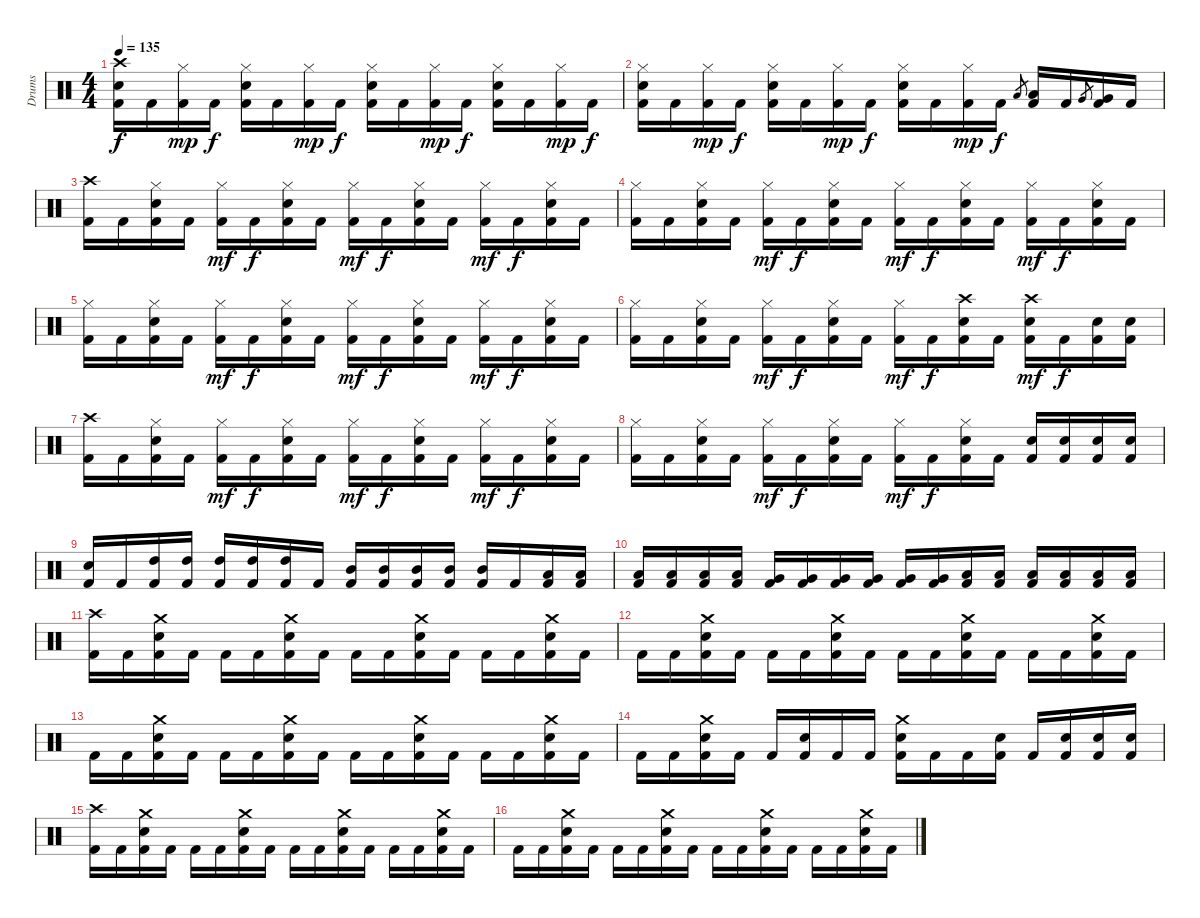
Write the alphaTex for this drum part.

\track ("Drums" "Drums") {instrument percussion}
\staff {score}
\articulation defaults
\ts (4 4)
\tempo 135
\clef neutral
\ks c
("Crash high (hit)" "Snare (hit) 2" "Kick (hit) 2").16{dy f} "Kick (hit) 2".16 ("Hi-Hat (closed)" "Kick (hit) 2").16{dy mp} "Kick (hit) 2".16{dy f} ("Hi-Hat (closed)" "Snare (hit) 2" "Kick (hit) 2").16 "Kick (hit) 2".16 ("Hi-Hat (closed)" "Kick (hit) 2").16{dy mp} "Kick (hit) 2".16{dy f} ("Hi-Hat (closed)" "Snare (hit) 2" "Kick (hit) 2").16 "Kick (hit) 2".16 ("Hi-Hat (closed)" "Kick (hit) 2").16{dy mp} "Kick (hit) 2".16{dy f} ("Hi-Hat (closed)" "Snare (hit) 2" "Kick (hit) 2").16 "Kick (hit) 2".16 ("Hi-Hat (closed)" "Kick (hit) 2").16{dy mp} "Kick (hit) 2".16{dy f} |
("Hi-Hat (closed)" "Snare (hit) 2" "Kick (hit) 2").16 "Kick (hit) 2".16 ("Hi-Hat (closed)" "Kick (hit) 2").16{dy mp} "Kick (hit) 2".16{dy f} ("Hi-Hat (closed)" "Snare (hit) 2" "Kick (hit) 2").16 "Kick (hit) 2".16 ("Hi-Hat (closed)" "Kick (hit) 2").16{dy mp} "Kick (hit) 2".16{dy f} ("Hi-Hat (closed)" "Snare (hit) 2" "Kick (hit) 2").16 "Kick (hit) 2".16 ("Hi-Hat (closed)" "Kick (hit) 2").16{dy mp} "Kick (hit) 2".16{dy f} "Low Tom (hit)".8{gr} ("Low Tom (hit)" "Kick (hit) 2").16 "Kick (hit) 2".16 "Very Low Tom (hit)".8{gr} ("Very Low Tom (hit)" "Kick (hit) 2").16 "Kick (hit) 2".16 |
("Crash high (hit)" "Kick (hit) 2").16 "Kick (hit) 2".16 ("Hi-Hat (closed)" "Snare (hit) 2" "Kick (hit) 2").16 "Kick (hit) 2".16 ("Hi-Hat (closed)" "Kick (hit) 2").16{dy mf} "Kick (hit) 2".16{dy f} ("Hi-Hat (closed)" "Snare (hit) 2" "Kick (hit) 2").16 "Kick (hit) 2".16 ("Hi-Hat (closed)" "Kick (hit) 2").16{dy mf} "Kick (hit) 2".16{dy f} ("Hi-Hat (closed)" "Snare (hit) 2" "Kick (hit) 2").16 "Kick (hit) 2".16 ("Hi-Hat (closed)" "Kick (hit) 2").16{dy mf} "Kick (hit) 2".16{dy f} ("Hi-Hat (closed)" "Snare (hit) 2" "Kick (hit) 2").16 "Kick (hit) 2".16 |
("Hi-Hat (closed)" "Kick (hit) 2").16 "Kick (hit) 2".16 ("Hi-Hat (closed)" "Snare (hit) 2" "Kick (hit) 2").16 "Kick (hit) 2".16 ("Hi-Hat (closed)" "Kick (hit) 2").16{dy mf} "Kick (hit) 2".16{dy f} ("Hi-Hat (closed)" "Snare (hit) 2" "Kick (hit) 2").16 "Kick (hit) 2".16 ("Hi-Hat (closed)" "Kick (hit) 2").16{dy mf} "Kick (hit) 2".16{dy f} ("Hi-Hat (closed)" "Snare (hit) 2" "Kick (hit) 2").16 "Kick (hit) 2".16 ("Hi-Hat (closed)" "Kick (hit) 2").16{dy mf} "Kick (hit) 2".16{dy f} ("Hi-Hat (closed)" "Snare (hit) 2" "Kick (hit) 2").16 "Kick (hit) 2".16 |
("Hi-Hat (closed)" "Kick (hit) 2").16 "Kick (hit) 2".16 ("Hi-Hat (closed)" "Snare (hit) 2" "Kick (hit) 2").16 "Kick (hit) 2".16 ("Hi-Hat (closed)" "Kick (hit) 2").16{dy mf} "Kick (hit) 2".16{dy f} ("Hi-Hat (closed)" "Snare (hit) 2" "Kick (hit) 2").16 "Kick (hit) 2".16 ("Hi-Hat (closed)" "Kick (hit) 2").16{dy mf} "Kick (hit) 2".16{dy f} ("Hi-Hat (closed)" "Snare (hit) 2" "Kick (hit) 2").16 "Kick (hit) 2".16 ("Hi-Hat (closed)" "Kick (hit) 2").16{dy mf} "Kick (hit) 2".16{dy f} ("Hi-Hat (closed)" "Snare (hit) 2" "Kick (hit) 2").16 "Kick (hit) 2".16 |
("Hi-Hat (closed)" "Kick (hit) 2").16 "Kick (hit) 2".16 ("Hi-Hat (closed)" "Snare (hit) 2" "Kick (hit) 2").16 "Kick (hit) 2".16 ("Hi-Hat (closed)" "Kick (hit) 2").16{dy mf} "Kick (hit) 2".16{dy f} ("Hi-Hat (closed)" "Snare (hit) 2" "Kick (hit) 2").16 "Kick (hit) 2".16 ("Hi-Hat (closed)" "Kick (hit) 2").16{dy mf} "Kick (hit) 2".16{dy f} ("Crash high (hit)" "Snare (hit) 2" "Kick (hit) 2").16 "Kick (hit) 2".16 ("Crash high (hit)" "Snare (hit) 2" "Kick (hit) 2").16{dy mf} "Kick (hit) 2".16{dy f} ("Snare (hit) 2" "Kick (hit) 2").16 ("Snare (hit) 2" "Kick (hit) 2").16 |
("Crash high (hit)" "Kick (hit) 2").16 "Kick (hit) 2".16 ("Hi-Hat (closed)" "Snare (hit) 2" "Kick (hit) 2").16 "Kick (hit) 2".16 ("Hi-Hat (closed)" "Kick (hit) 2").16{dy mf} "Kick (hit) 2".16{dy f} ("Hi-Hat (closed)" "Snare (hit) 2" "Kick (hit) 2").16 "Kick (hit) 2".16 ("Hi-Hat (closed)" "Kick (hit) 2").16{dy mf} "Kick (hit) 2".16{dy f} ("Hi-Hat (closed)" "Snare (hit) 2" "Kick (hit) 2").16 "Kick (hit) 2".16 ("Hi-Hat (closed)" "Kick (hit) 2").16{dy mf} "Kick (hit) 2".16{dy f} ("Hi-Hat (closed)" "Snare (hit) 2" "Kick (hit) 2").16 "Kick (hit) 2".16 |
("Hi-Hat (closed)" "Kick (hit) 2").16 "Kick (hit) 2".16 ("Hi-Hat (closed)" "Snare (hit) 2" "Kick (hit) 2").16 "Kick (hit) 2".16 ("Hi-Hat (closed)" "Kick (hit) 2").16{dy mf} "Kick (hit) 2".16{dy f} ("Hi-Hat (closed)" "Snare (hit) 2" "Kick (hit) 2").16 "Kick (hit) 2".16 ("Hi-Hat (closed)" "Kick (hit) 2").16{dy mf} "Kick (hit) 2".16{dy f} ("Hi-Hat (closed)" "Snare (hit) 2" "Kick (hit) 2").16 "Kick (hit) 2".16 ("Snare (hit) 2" "Kick (hit) 2").16 ("Snare (hit) 2" "Kick (hit) 2").16 ("Snare (hit) 2" "Kick (hit) 2").16 ("Snare (hit) 2" "Kick (hit) 2").16 |
("Snare (hit) 2" "Kick (hit) 2").16 "Kick (hit) 2".16 ("High Tom (hit)" "Kick (hit) 2").16 ("High Tom (hit)" "Kick (hit) 2").16 ("High Tom (hit)" "Kick (hit) 2").16 ("High Tom (hit)" "Kick (hit) 2").16 ("High Tom (hit)" "Kick (hit) 2").16 "Kick (hit) 2".16 ("Mid Tom (hit)" "Kick (hit) 2").16 ("Mid Tom (hit)" "Kick (hit) 2").16 ("Mid Tom (hit)" "Kick (hit) 2").16 ("Mid Tom (hit)" "Kick (hit) 2").16 ("Mid Tom (hit)" "Kick (hit) 2").16 "Kick (hit) 2".16 ("Low Tom (hit)" "Kick (hit) 2").16 ("Low Tom (hit)" "Kick (hit) 2").16 |
("Low Tom (hit)" "Kick (hit) 2").16 ("Low Tom (hit)" "Kick (hit) 2").16 ("Low Tom (hit)" "Kick (hit) 2").16 ("Low Tom (hit)" "Kick (hit) 2").16 ("Very Low Tom (hit)" "Kick (hit) 2").16 ("Very Low Tom (hit)" "Kick (hit) 2").16 ("Very Low Tom (hit)" "Kick (hit) 2").16 ("Very Low Tom (hit)" "Kick (hit) 2").16 ("Very Low Tom (hit)" "Kick (hit) 2").16 ("Very Low Tom (hit)" "Kick (hit) 2").16 ("Low Floor Tom (hit)" "Kick (hit) 2").16 ("Low Floor Tom (hit)" "Kick (hit) 2").16 ("Low Floor Tom (hit)" "Kick (hit) 2").16 ("Low Floor Tom (hit)" "Kick (hit) 2").16 ("Low Floor Tom (hit)" "Kick (hit) 2").16 ("Low Floor Tom (hit)" "Kick (hit) 2").16 |
("Crash high (hit)" "Kick (hit) 2").16 "Kick (hit) 2".16 ("Crash medium (hit)" "Snare (hit) 2" "Kick (hit) 2").16 "Kick (hit) 2".16 "Kick (hit) 2".16 "Kick (hit) 2".16 ("Crash medium (hit)" "Snare (hit) 2" "Kick (hit) 2").16 "Kick (hit) 2".16 "Kick (hit) 2".16 "Kick (hit) 2".16 ("Crash medium (hit)" "Snare (hit) 2" "Kick (hit) 2").16 "Kick (hit) 2".16 "Kick (hit) 2".16 "Kick (hit) 2".16 ("Crash medium (hit)" "Snare (hit) 2" "Kick (hit) 2").16 "Kick (hit) 2".16 |
"Kick (hit) 2".16 "Kick (hit) 2".16 ("Crash medium (hit)" "Snare (hit) 2" "Kick (hit) 2").16 "Kick (hit) 2".16 "Kick (hit) 2".16 "Kick (hit) 2".16 ("Crash medium (hit)" "Snare (hit) 2" "Kick (hit) 2").16 "Kick (hit) 2".16 "Kick (hit) 2".16 "Kick (hit) 2".16 ("Crash medium (hit)" "Snare (hit) 2" "Kick (hit) 2").16 "Kick (hit) 2".16 "Kick (hit) 2".16 "Kick (hit) 2".16 ("Crash medium (hit)" "Snare (hit) 2" "Kick (hit) 2").16 "Kick (hit) 2".16 |
"Kick (hit) 2".16 "Kick (hit) 2".16 ("Crash medium (hit)" "Snare (hit) 2" "Kick (hit) 2").16 "Kick (hit) 2".16 "Kick (hit) 2".16 "Kick (hit) 2".16 ("Crash medium (hit)" "Snare (hit) 2" "Kick (hit) 2").16 "Kick (hit) 2".16 "Kick (hit) 2".16 "Kick (hit) 2".16 ("Crash medium (hit)" "Snare (hit) 2" "Kick (hit) 2").16 "Kick (hit) 2".16 "Kick (hit) 2".16 "Kick (hit) 2".16 ("Crash medium (hit)" "Snare (hit) 2" "Kick (hit) 2").16 "Kick (hit) 2".16 |
"Kick (hit) 2".16 "Kick (hit) 2".16 ("Crash medium (hit)" "Snare (hit) 2" "Kick (hit) 2").16 "Kick (hit) 2".16 "Kick (hit) 2".16 ("Snare (hit) 2" "Kick (hit) 2").16 "Kick (hit) 2".16 "Kick (hit) 2".16 ("Crash medium (hit)" "Snare (hit) 2" "Kick (hit) 2").16 "Kick (hit) 2".16 "Kick (hit) 2".16 ("Snare (hit) 2" "Kick (hit) 2").16 "Kick (hit) 2".16 ("Snare (hit) 2" "Kick (hit) 2").16 ("Snare (hit) 2" "Kick (hit) 2").16 ("Snare (hit) 2" "Kick (hit) 2").16 |
("Crash high (hit)" "Kick (hit) 2").16 "Kick (hit) 2".16 ("Crash medium (hit)" "Snare (hit) 2" "Kick (hit) 2").16 "Kick (hit) 2".16 "Kick (hit) 2".16 "Kick (hit) 2".16 ("Crash medium (hit)" "Snare (hit) 2" "Kick (hit) 2").16 "Kick (hit) 2".16 "Kick (hit) 2".16 "Kick (hit) 2".16 ("Crash medium (hit)" "Snare (hit) 2" "Kick (hit) 2").16 "Kick (hit) 2".16 "Kick (hit) 2".16 "Kick (hit) 2".16 ("Crash medium (hit)" "Snare (hit) 2" "Kick (hit) 2").16 "Kick (hit) 2".16 |
"Kick (hit) 2".16 "Kick (hit) 2".16 ("Crash medium (hit)" "Snare (hit) 2" "Kick (hit) 2").16 "Kick (hit) 2".16 "Kick (hit) 2".16 "Kick (hit) 2".16 ("Crash medium (hit)" "Snare (hit) 2" "Kick (hit) 2").16 "Kick (hit) 2".16 "Kick (hit) 2".16 "Kick (hit) 2".16 ("Crash medium (hit)" "Snare (hit) 2" "Kick (hit) 2").16 "Kick (hit) 2".16 "Kick (hit) 2".16 "Kick (hit) 2".16 ("Crash medium (hit)" "Snare (hit) 2" "Kick (hit) 2").16 "Kick (hit) 2".16
